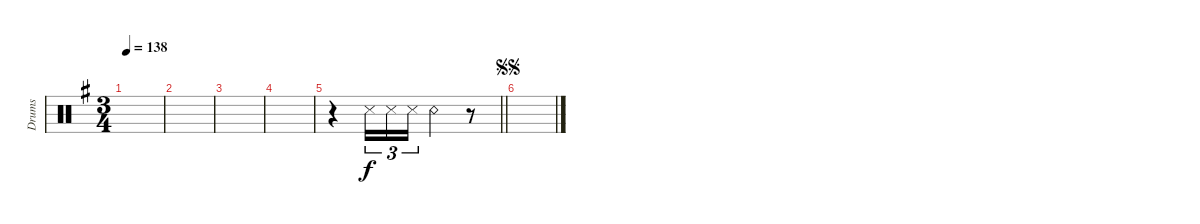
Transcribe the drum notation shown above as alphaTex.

\defaultSystemsLayout 4
\bracketExtendMode groupsimilarinstruments
\otherSystemsTrackNameOrientation horizontal
\track ("Drumkit" "Drums") {instrument percussion}
\staff {score}
\articulation defaults
\ts (3 4)
\scale
0.235569
\tempo 138
\accidentals auto
\clef neutral
\ottava regular
\simile none
\ks eminor
|
\scale
0.0967239 |
\scale
0.1297 |
\scale
0.120975 |
\scale
0.258232
\barLineRight lightlight
r.4{beam Down} "Snare (side stick) 3"{acc forcenatural}.16{tu (3 2) beam Down} "Snare (side stick) 3"{acc forcenatural}.16{tu (3 2) beam Down} "Snare (side stick) 3"{acc forcenatural}.16{tu (3 2) beam Down} "Snare (rim shot)"{acc forcenatural}.4{beam Down} r.8{beam Down} |
\beaming (8 1 1 1 1 1 1)
\scale
0.38274
\jump segnosegno
|
\scale
0.317215 |
\scale
0.238936 |
\scale
0.257839 |
|
|
|
\scale
0.341354 |
\scale
0.233439 |
\scale
0.22121 |
\scale
0.203964
